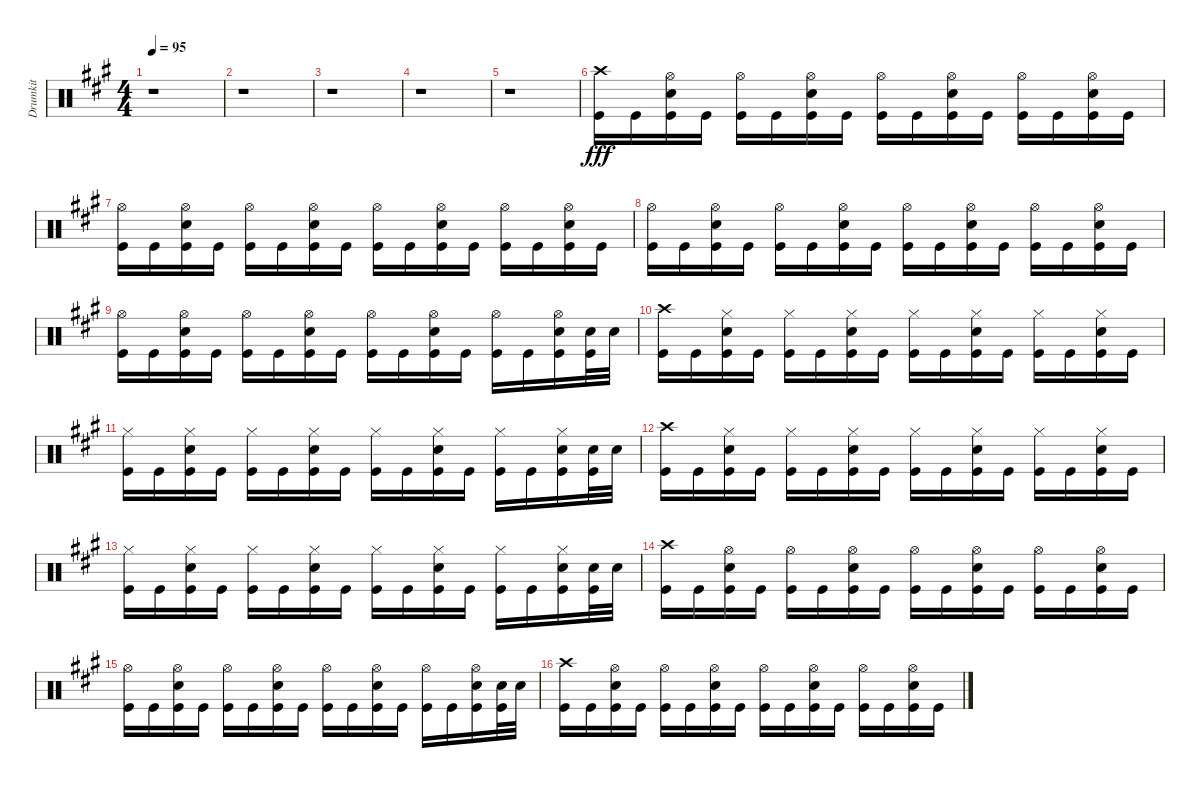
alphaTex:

\track ("Drumkit" "Drumkit") {instrument percussion}
\staff {score}
\articulation defaults
\ts (4 4)
\tempo 95
\clef neutral
\ks a
r.1{dy fff} |
r.1 |
r.1 |
r.1 |
r.1 |
("Crash high (hit)" "Kick (hit)").16 "Kick (hit)".16 ("Hi-Hat (open)" "Snare (hit) 2" "Kick (hit)").16 "Kick (hit)".16 ("Hi-Hat (open)" "Kick (hit)").16 "Kick (hit)".16 ("Hi-Hat (open)" "Snare (hit) 2" "Kick (hit)").16 "Kick (hit)".16 ("Hi-Hat (open)" "Kick (hit)").16 "Kick (hit)".16 ("Hi-Hat (open)" "Snare (hit) 2" "Kick (hit)").16 "Kick (hit)".16 ("Hi-Hat (open)" "Kick (hit)").16 "Kick (hit)".16 ("Hi-Hat (open)" "Snare (hit) 2" "Kick (hit)").16 "Kick (hit)".16 |
("Hi-Hat (open)" "Kick (hit)").16 "Kick (hit)".16 ("Hi-Hat (open)" "Snare (hit) 2" "Kick (hit)").16 "Kick (hit)".16 ("Hi-Hat (open)" "Kick (hit)").16 "Kick (hit)".16 ("Hi-Hat (open)" "Snare (hit) 2" "Kick (hit)").16 "Kick (hit)".16 ("Hi-Hat (open)" "Kick (hit)").16 "Kick (hit)".16 ("Hi-Hat (open)" "Snare (hit) 2" "Kick (hit)").16 "Kick (hit)".16 ("Hi-Hat (open)" "Kick (hit)").16 "Kick (hit)".16 ("Hi-Hat (open)" "Snare (hit) 2" "Kick (hit)").16 "Kick (hit)".16 |
("Hi-Hat (open)" "Kick (hit)").16 "Kick (hit)".16 ("Hi-Hat (open)" "Snare (hit) 2" "Kick (hit)").16 "Kick (hit)".16 ("Hi-Hat (open)" "Kick (hit)").16 "Kick (hit)".16 ("Hi-Hat (open)" "Snare (hit) 2" "Kick (hit)").16 "Kick (hit)".16 ("Hi-Hat (open)" "Kick (hit)").16 "Kick (hit)".16 ("Hi-Hat (open)" "Snare (hit) 2" "Kick (hit)").16 "Kick (hit)".16 ("Hi-Hat (open)" "Kick (hit)").16 "Kick (hit)".16 ("Hi-Hat (open)" "Snare (hit) 2" "Kick (hit)").16 "Kick (hit)".16 |
("Hi-Hat (open)" "Kick (hit)").16 "Kick (hit)".16 ("Hi-Hat (open)" "Snare (hit) 2" "Kick (hit)").16 "Kick (hit)".16 ("Hi-Hat (open)" "Kick (hit)").16 "Kick (hit)".16 ("Hi-Hat (open)" "Snare (hit) 2" "Kick (hit)").16 "Kick (hit)".16 ("Hi-Hat (open)" "Kick (hit)").16 "Kick (hit)".16 ("Hi-Hat (open)" "Snare (hit) 2" "Kick (hit)").16 "Kick (hit)".16 ("Hi-Hat (open)" "Kick (hit)").16 "Kick (hit)".16 ("Hi-Hat (open)" "Snare (hit) 2" "Kick (hit)").16 ("Snare (hit) 2" "Kick (hit)").32 "Snare (hit) 2".32 |
("Crash high (hit)" "Kick (hit)").16 "Kick (hit)".16 ("Hi-Hat (closed)" "Snare (hit) 2" "Kick (hit)").16 "Kick (hit)".16 ("Hi-Hat (closed)" "Kick (hit)").16 "Kick (hit)".16 ("Hi-Hat (closed)" "Snare (hit) 2" "Kick (hit)").16 "Kick (hit)".16 ("Hi-Hat (closed)" "Kick (hit)").16 "Kick (hit)".16 ("Hi-Hat (closed)" "Snare (hit) 2" "Kick (hit)").16 "Kick (hit)".16 ("Hi-Hat (closed)" "Kick (hit)").16 "Kick (hit)".16 ("Hi-Hat (closed)" "Snare (hit) 2" "Kick (hit)").16 "Kick (hit)".16 |
("Hi-Hat (closed)" "Kick (hit)").16 "Kick (hit)".16 ("Hi-Hat (closed)" "Snare (hit) 2" "Kick (hit)").16 "Kick (hit)".16 ("Hi-Hat (closed)" "Kick (hit)").16 "Kick (hit)".16 ("Hi-Hat (closed)" "Snare (hit) 2" "Kick (hit)").16 "Kick (hit)".16 ("Hi-Hat (closed)" "Kick (hit)").16 "Kick (hit)".16 ("Hi-Hat (closed)" "Snare (hit) 2" "Kick (hit)").16 "Kick (hit)".16 ("Hi-Hat (closed)" "Kick (hit)").16 "Kick (hit)".16 ("Hi-Hat (closed)" "Snare (hit) 2" "Kick (hit)").16 ("Snare (hit) 2" "Kick (hit)").32 "Snare (hit) 2".32 |
("Crash high (hit)" "Kick (hit)").16 "Kick (hit)".16 ("Hi-Hat (closed)" "Snare (hit) 2" "Kick (hit)").16 "Kick (hit)".16 ("Hi-Hat (closed)" "Kick (hit)").16 "Kick (hit)".16 ("Hi-Hat (closed)" "Snare (hit) 2" "Kick (hit)").16 "Kick (hit)".16 ("Hi-Hat (closed)" "Kick (hit)").16 "Kick (hit)".16 ("Hi-Hat (closed)" "Snare (hit) 2" "Kick (hit)").16 "Kick (hit)".16 ("Hi-Hat (closed)" "Kick (hit)").16 "Kick (hit)".16 ("Hi-Hat (closed)" "Snare (hit) 2" "Kick (hit)").16 "Kick (hit)".16 |
("Hi-Hat (closed)" "Kick (hit)").16 "Kick (hit)".16 ("Hi-Hat (closed)" "Snare (hit) 2" "Kick (hit)").16 "Kick (hit)".16 ("Hi-Hat (closed)" "Kick (hit)").16 "Kick (hit)".16 ("Hi-Hat (closed)" "Snare (hit) 2" "Kick (hit)").16 "Kick (hit)".16 ("Hi-Hat (closed)" "Kick (hit)").16 "Kick (hit)".16 ("Hi-Hat (closed)" "Snare (hit) 2" "Kick (hit)").16 "Kick (hit)".16 ("Hi-Hat (closed)" "Kick (hit)").16 "Kick (hit)".16 ("Hi-Hat (closed)" "Snare (hit) 2" "Kick (hit)").16 ("Snare (hit) 2" "Kick (hit)").32 "Snare (hit) 2".32 |
("Crash high (hit)" "Kick (hit)").16 "Kick (hit)".16 ("Hi-Hat (open)" "Snare (hit) 2" "Kick (hit)").16 "Kick (hit)".16 ("Hi-Hat (open)" "Kick (hit)").16 "Kick (hit)".16 ("Hi-Hat (open)" "Snare (hit) 2" "Kick (hit)").16 "Kick (hit)".16 ("Hi-Hat (open)" "Kick (hit)").16 "Kick (hit)".16 ("Hi-Hat (open)" "Snare (hit) 2" "Kick (hit)").16 "Kick (hit)".16 ("Hi-Hat (open)" "Kick (hit)").16 "Kick (hit)".16 ("Hi-Hat (open)" "Snare (hit) 2" "Kick (hit)").16 "Kick (hit)".16 |
("Hi-Hat (open)" "Kick (hit)").16 "Kick (hit)".16 ("Hi-Hat (open)" "Snare (hit) 2" "Kick (hit)").16 "Kick (hit)".16 ("Hi-Hat (open)" "Kick (hit)").16 "Kick (hit)".16 ("Hi-Hat (open)" "Snare (hit) 2" "Kick (hit)").16 "Kick (hit)".16 ("Hi-Hat (open)" "Kick (hit)").16 "Kick (hit)".16 ("Hi-Hat (open)" "Snare (hit) 2" "Kick (hit)").16 "Kick (hit)".16 ("Hi-Hat (open)" "Kick (hit)").16 "Kick (hit)".16 ("Hi-Hat (open)" "Snare (hit) 2" "Kick (hit)").16 ("Snare (hit) 2" "Kick (hit)").32 "Snare (hit) 2".32 |
("Crash high (hit)" "Kick (hit)").16 "Kick (hit)".16 ("Hi-Hat (open)" "Snare (hit) 2" "Kick (hit)").16 "Kick (hit)".16 ("Hi-Hat (open)" "Kick (hit)").16 "Kick (hit)".16 ("Hi-Hat (open)" "Snare (hit) 2" "Kick (hit)").16 "Kick (hit)".16 ("Hi-Hat (open)" "Kick (hit)").16 "Kick (hit)".16 ("Hi-Hat (open)" "Snare (hit) 2" "Kick (hit)").16 "Kick (hit)".16 ("Hi-Hat (open)" "Kick (hit)").16 "Kick (hit)".16 ("Hi-Hat (open)" "Snare (hit) 2" "Kick (hit)").16 "Kick (hit)".16
